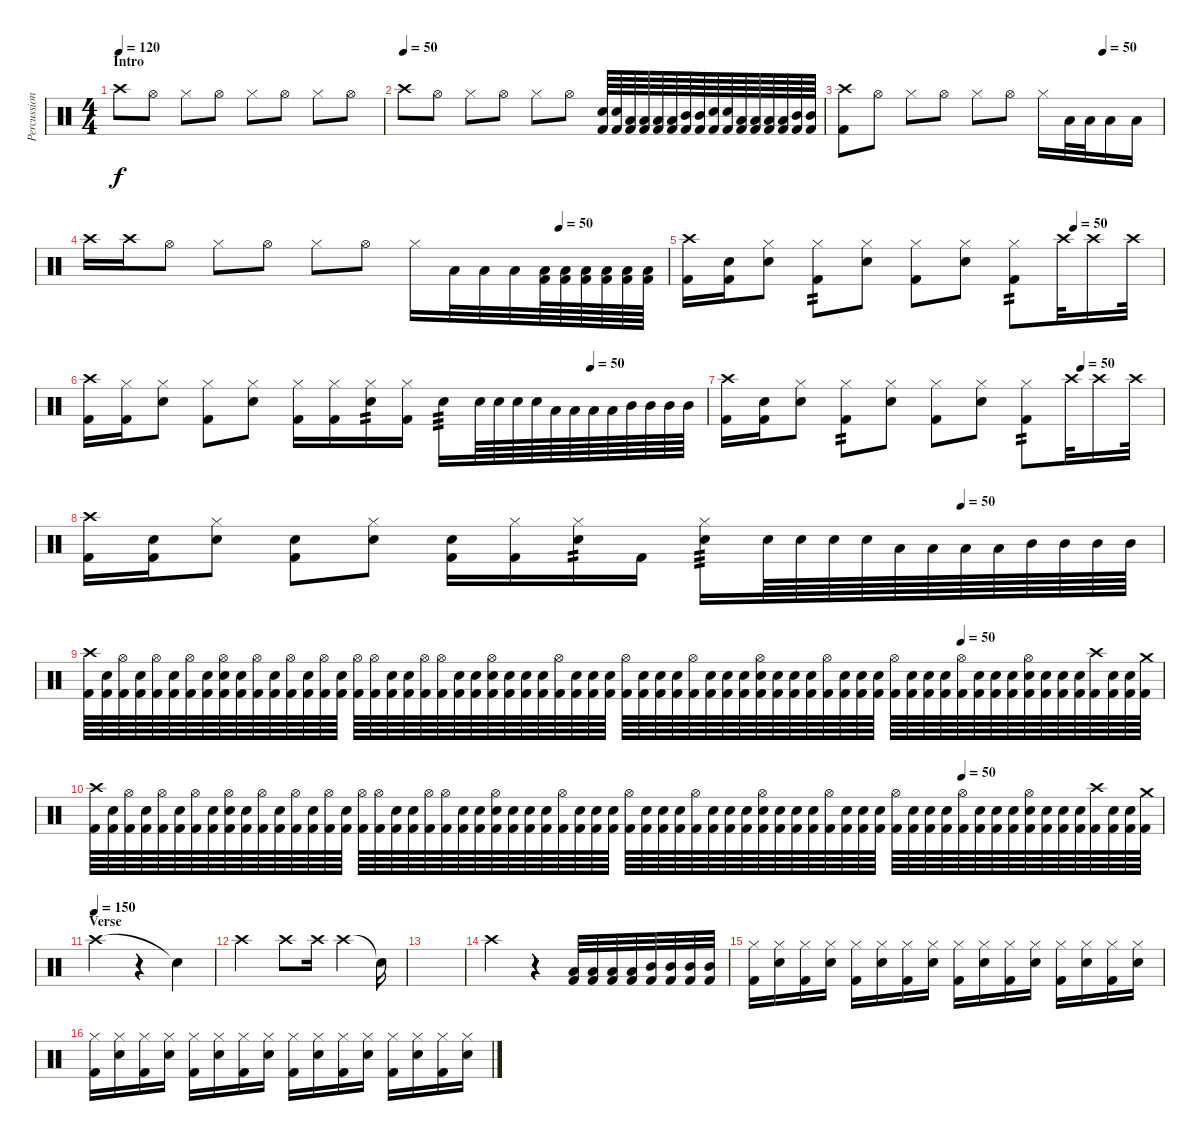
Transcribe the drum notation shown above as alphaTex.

\track ("Percussion" "Percussion") {instrument percussion}
\staff {score}
\articulation defaults
\ts (4 4)
\section ("" "Intro")
\tempo 120
\tempo 50
\tempo 120
\clef neutral
\ks c "Crash high (hit)".8{dy f} "Hi-Hat (open)".8 "Hi-Hat (closed)".8 "Hi-Hat (open)".8 "Hi-Hat (closed)".8 "Hi-Hat (open)".8 "Hi-Hat (closed)".8 "Hi-Hat (open)".8
|
\tempo (50)
"Crash high (hit)".8 "Hi-Hat (open)".8 "Hi-Hat (closed)".8 "Hi-Hat (open)".8 "Hi-Hat (closed)".8 "Hi-Hat (open)".8 ("Electric Snare (hit)" "Kick (hit) 2").64 ("Electric Snare (hit)" "Kick (hit) 2").64 ("Low Tom (hit)" "Kick (hit) 2").64 ("Low Tom (hit)" "Kick (hit) 2").64 ("Low Tom (hit)" "Kick (hit) 2").64 ("Low Tom (hit)" "Kick (hit) 2").64 ("Mid Tom (hit)" "Kick (hit) 2").64 ("Mid Tom (hit)" "Kick (hit) 2").64 ("Electric Snare (hit)" "Kick (hit) 2").64 ("Electric Snare (hit)" "Kick (hit) 2").64 ("Low Tom (hit)" "Kick (hit) 2").64 ("Low Tom (hit)" "Kick (hit) 2").64 ("Low Tom (hit)" "Kick (hit) 2").64 ("Low Tom (hit)" "Kick (hit) 2").64 ("Mid Tom (hit)" "Kick (hit) 2").64 ("Mid Tom (hit)" "Kick (hit) 2").64 |
\tempo (50 0.8125)
("Crash high (hit)" "Kick (hit) 2").8 "Hi-Hat (open)".8 "Hi-Hat (closed)".8 "Hi-Hat (open)".8 "Hi-Hat (closed)".8 "Hi-Hat (open)".8 "Hi-Hat (closed)".16 "Low Tom (hit)".32 "Low Tom (hit)".32 "Low Tom (hit)".16 "Low Tom (hit)".16 |
\tempo (50 0.8125)
"Crash high (hit)".16 "Crash high (hit)".16 "Hi-Hat (open)".8 "Hi-Hat (closed)".8 "Hi-Hat (open)".8 "Hi-Hat (closed)".8 "Hi-Hat (open)".8 "Hi-Hat (closed)".16 "Low Tom (hit)".32 "Low Tom (hit)".32 "Low Tom (hit)".32 ("Low Tom (hit)" "Kick (hit) 2").64 ("Low Tom (hit)" "Kick (hit) 2").64 ("Low Tom (hit)" "Kick (hit) 2").64 ("Low Tom (hit)" "Kick (hit) 2").64 ("Low Tom (hit)" "Kick (hit) 2").64 ("Low Tom (hit)" "Kick (hit) 2").64 |
\tempo (50 0.8125)
("Crash high (hit)" "Kick (hit) 2").16 ("Snare (hit)"{x} "Kick (hit) 2").16 ("Hi-Hat (closed)" "Electric Snare (hit)").8 ("Hi-Hat (closed)" "Kick (hit) 2").8{tp 2} ("Hi-Hat (closed)" "Electric Snare (hit)").8 ("Hi-Hat (closed)" "Kick (hit) 2").8 ("Hi-Hat (closed)" "Electric Snare (hit)").8 ("Hi-Hat (closed)" "Kick (hit) 2").8{tp 2} "Crash high (hit)".32 "Crash high (hit)".16 "Crash high (hit)".32 |
\tempo (50 0.8125)
("Crash high (hit)" "Kick (hit) 2").16 ("Hi-Hat (closed)"{x} "Kick (hit) 2").16 ("Hi-Hat (closed)" "Electric Snare (hit)").8 ("Hi-Hat (closed)" "Kick (hit) 2").8 ("Hi-Hat (closed)" "Electric Snare (hit)").8 ("Hi-Hat (closed)" "Kick (hit) 2").16 ("Hi-Hat (closed)"{x} "Kick (hit) 2").16 ("Hi-Hat (closed)" "Electric Snare (hit)").16{tp 2} ("Hi-Hat (closed)"{x} "Kick (hit) 2").16 "Electric Snare (hit)".16{tp 3} "Electric Snare (hit)".64 "Electric Snare (hit)".64 "Electric Snare (hit)".64 "Electric Snare (hit)".64 "Low Tom (hit)".64 "Low Tom (hit)".64 "Low Tom (hit)".64 "Low Tom (hit)".64 "Mid Tom (hit)".64 "Mid Tom (hit)".64 "Mid Tom (hit)".64 "Mid Tom (hit)".64 |
\tempo (50 0.8125)
("Crash high (hit)" "Kick (hit) 2").16 ("Snare (hit)"{x} "Kick (hit) 2").16 ("Hi-Hat (closed)" "Electric Snare (hit)").8 ("Hi-Hat (closed)" "Kick (hit) 2").8{tp 2} ("Hi-Hat (closed)" "Electric Snare (hit)").8 ("Hi-Hat (closed)" "Kick (hit) 2").8 ("Hi-Hat (closed)" "Electric Snare (hit)").8 ("Hi-Hat (closed)" "Kick (hit) 2").8{tp 2} "Crash high (hit)".32 "Crash high (hit)".16 "Crash high (hit)".32 |
\tempo (50 0.8125)
("Crash high (hit)" "Kick (hit) 2").16 ("Snare (hit)"{x} "Kick (hit) 2").16 ("Hi-Hat (closed)" "Electric Snare (hit)").8 ("Snare (hit)"{x} "Kick (hit) 2").8 ("Hi-Hat (closed)" "Electric Snare (hit)").8 ("Snare (hit)"{x} "Kick (hit) 2").16 ("Hi-Hat (closed)" "Kick (hit) 2").16 ("Hi-Hat (closed)"{x} "Electric Snare (hit)").16{tp 2} "Kick (hit) 2".16 ("Hi-Hat (closed)"{x} "Electric Snare (hit)").16{tp 3} "Electric Snare (hit)".64 "Electric Snare (hit)".64 "Electric Snare (hit)".64 "Electric Snare (hit)".64 "Low Tom (hit)".64 "Low Tom (hit)".64 "Low Tom (hit)".64 "Low Tom (hit)".64 "Mid Tom (hit)".64 "Mid Tom (hit)".64 "Mid Tom (hit)".64 "Mid Tom (hit)".64 |
\tempo (50 0.8125)
("Crash high (hit)" "Kick (hit) 2").64 ("Snare (hit)"{x} "Kick (hit) 2").64 ("Hi-Hat (open)"{x} "Kick (hit) 2").64 ("Snare (hit)"{x} "Kick (hit) 2").64 ("Hi-Hat (open)" "Kick (hit) 2").64 ("Snare (hit)"{x} "Kick (hit) 2").64 ("Hi-Hat (open)"{x} "Kick (hit) 2").64 ("Snare (hit)"{x} "Kick (hit) 2").64 ("Hi-Hat (open)" "Electric Snare (hit)" "Kick (hit) 2").64 ("Snare (hit)"{x} "Kick (hit) 2").64 ("Hi-Hat (open)"{x} "Kick (hit) 2").64 ("Snare (hit)"{x} "Kick (hit) 2").64 ("Hi-Hat (open)" "Kick (hit) 2").64 ("Snare (hit)"{x} "Kick (hit) 2").64 ("Hi-Hat (open)"{x} "Kick (hit) 2").64 ("Snare (hit)"{x} "Kick (hit) 2").64 ("Hi-Hat (open)" "Kick (hit) 2").64 ("Hi-Hat (open)"{x} "Kick (hit) 2").64 ("Snare (hit)"{x} "Kick (hit) 2").64 ("Snare (hit)"{x} "Kick (hit) 2").64 ("Hi-Hat (open)" "Kick (hit) 2").64 ("Hi-Hat (open)"{x} "Kick (hit) 2").64 ("Snare (hit)"{x} "Kick (hit) 2").64 ("Snare (hit)"{x} "Kick (hit) 2").64 ("Hi-Hat (open)" "Electric Snare (hit)" "Kick (hit) 2").64 ("Snare (hit)"{x} "Kick (hit) 2").64 ("Snare (hit)"{x} "Kick (hit) 2").64 ("Snare (hit)"{x} "Kick (hit) 2").64 ("Hi-Hat (open)" "Kick (hit) 2").64 ("Snare (hit)"{x} "Kick (hit) 2").64 ("Snare (hit)"{x} "Kick (hit) 2").64 ("Snare (hit)"{x} "Kick (hit) 2").64 ("Hi-Hat (open)" "Kick (hit) 2").64 ("Snare (hit)"{x} "Kick (hit) 2").64 ("Snare (hit)"{x} "Kick (hit) 2").64 ("Snare (hit)"{x} "Kick (hit) 2").64 ("Hi-Hat (open)" "Kick (hit) 2").64 ("Snare (hit)"{x} "Kick (hit) 2").64 ("Snare (hit)"{x} "Kick (hit) 2").64 ("Snare (hit)"{x} "Kick (hit) 2").64 ("Hi-Hat (open)" "Electric Snare (hit)" "Kick (hit) 2").64 ("Snare (hit)"{x} "Kick (hit) 2").64 ("Snare (hit)"{x} "Kick (hit) 2").64 ("Snare (hit)"{x} "Kick (hit) 2").64 ("Hi-Hat (open)" "Kick (hit) 2").64 ("Snare (hit)"{x} "Kick (hit) 2").64 ("Snare (hit)"{x} "Kick (hit) 2").64 ("Snare (hit)"{x} "Kick (hit) 2").64 ("Hi-Hat (open)" "Kick (hit) 2").64 ("Snare (hit)"{x} "Kick (hit) 2").64 ("Snare (hit)"{x} "Kick (hit) 2").64 ("Snare (hit)"{x} "Kick (hit) 2").64 ("Hi-Hat (open)" "Kick (hit) 2").64 ("Snare (hit)"{x} "Kick (hit) 2").64 ("Snare (hit)"{x} "Kick (hit) 2").64 ("Snare (hit)"{x} "Kick (hit) 2").64 ("Hi-Hat (open)" "Electric Snare (hit)" "Kick (hit) 2").64 ("Snare (hit)"{x} "Kick (hit) 2").64 ("Snare (hit)"{x} "Kick (hit) 2").64 ("Snare (hit)"{x} "Kick (hit) 2").64 ("Crash high (hit)" "Kick (hit) 2").64 ("Snare (hit)"{x} "Kick (hit) 2").64 ("Snare (hit)"{x} "Kick (hit) 2").64 ("Crash medium (hit)" "Kick (hit) 2").64 |
\tempo (50 0.8125)
("Crash high (hit)" "Kick (hit) 2").64 ("Snare (hit)"{x} "Kick (hit) 2").64 ("Hi-Hat (open)"{x} "Kick (hit) 2").64 ("Snare (hit)"{x} "Kick (hit) 2").64 ("Hi-Hat (open)" "Kick (hit) 2").64 ("Snare (hit)"{x} "Kick (hit) 2").64 ("Hi-Hat (open)"{x} "Kick (hit) 2").64 ("Snare (hit)"{x} "Kick (hit) 2").64 ("Hi-Hat (open)" "Electric Snare (hit)" "Kick (hit) 2").64 ("Snare (hit)"{x} "Kick (hit) 2").64 ("Hi-Hat (open)"{x} "Kick (hit) 2").64 ("Snare (hit)"{x} "Kick (hit) 2").64 ("Hi-Hat (open)" "Kick (hit) 2").64 ("Snare (hit)"{x} "Kick (hit) 2").64 ("Hi-Hat (open)"{x} "Kick (hit) 2").64 ("Snare (hit)"{x} "Kick (hit) 2").64 ("Hi-Hat (open)" "Kick (hit) 2").64 ("Hi-Hat (open)"{x} "Kick (hit) 2").64 ("Snare (hit)"{x} "Kick (hit) 2").64 ("Snare (hit)"{x} "Kick (hit) 2").64 ("Hi-Hat (open)" "Kick (hit) 2").64 ("Hi-Hat (open)"{x} "Kick (hit) 2").64 ("Snare (hit)"{x} "Kick (hit) 2").64 ("Snare (hit)"{x} "Kick (hit) 2").64 ("Hi-Hat (open)" "Electric Snare (hit)" "Kick (hit) 2").64 ("Snare (hit)"{x} "Kick (hit) 2").64 ("Snare (hit)"{x} "Kick (hit) 2").64 ("Snare (hit)"{x} "Kick (hit) 2").64 ("Hi-Hat (open)" "Kick (hit) 2").64 ("Snare (hit)"{x} "Kick (hit) 2").64 ("Snare (hit)"{x} "Kick (hit) 2").64 ("Snare (hit)"{x} "Kick (hit) 2").64 ("Hi-Hat (open)" "Kick (hit) 2").64 ("Snare (hit)"{x} "Kick (hit) 2").64 ("Snare (hit)"{x} "Kick (hit) 2").64 ("Snare (hit)"{x} "Kick (hit) 2").64 ("Hi-Hat (open)" "Kick (hit) 2").64 ("Snare (hit)"{x} "Kick (hit) 2").64 ("Snare (hit)"{x} "Kick (hit) 2").64 ("Snare (hit)"{x} "Kick (hit) 2").64 ("Hi-Hat (open)" "Electric Snare (hit)" "Kick (hit) 2").64 ("Snare (hit)"{x} "Kick (hit) 2").64 ("Snare (hit)"{x} "Kick (hit) 2").64 ("Snare (hit)"{x} "Kick (hit) 2").64 ("Hi-Hat (open)" "Kick (hit) 2").64 ("Snare (hit)"{x} "Kick (hit) 2").64 ("Snare (hit)"{x} "Kick (hit) 2").64 ("Snare (hit)"{x} "Kick (hit) 2").64 ("Hi-Hat (open)" "Kick (hit) 2").64 ("Snare (hit)"{x} "Kick (hit) 2").64 ("Snare (hit)"{x} "Kick (hit) 2").64 ("Snare (hit)"{x} "Kick (hit) 2").64 ("Hi-Hat (open)" "Kick (hit) 2").64 ("Snare (hit)"{x} "Kick (hit) 2").64 ("Snare (hit)"{x} "Kick (hit) 2").64 ("Snare (hit)"{x} "Kick (hit) 2").64 ("Hi-Hat (open)" "Electric Snare (hit)" "Kick (hit) 2").64 ("Snare (hit)"{x} "Kick (hit) 2").64 ("Snare (hit)"{x} "Kick (hit) 2").64 ("Snare (hit)"{x} "Kick (hit) 2").64 ("Crash high (hit)" "Kick (hit) 2").64 ("Snare (hit)"{x} "Kick (hit) 2").64 ("Snare (hit)"{x} "Kick (hit) 2").64 ("Crash medium (hit)" "Kick (hit) 2").64 |
\section ("" "Verse")
\tempo (150)
"Crash high (hit)".2 r.4 "Snare (hit)"{t}.4 |
"Crash high (hit)".2 "Crash high (hit)".8 "Crash high (hit)".16 "Crash high (hit)".4 "Snare (hit)"{t}.16 |
|
"Crash high (hit)".2 r.4 ("Low Tom (hit)" "Kick (hit) 2").32 ("Low Tom (hit)" "Kick (hit) 2").32 ("Low Tom (hit)" "Kick (hit) 2").32 ("Low Tom (hit)" "Kick (hit) 2").32 ("Mid Tom (hit)" "Kick (hit) 2").32 ("Mid Tom (hit)" "Kick (hit) 2").32 ("Mid Tom (hit)" "Kick (hit) 2").32 ("Mid Tom (hit)" "Kick (hit) 2").32 |
("Hi-Hat (closed)" "Kick (hit) 2").16 ("Hi-Hat (closed)" "Electric Snare (hit)").16 ("Hi-Hat (closed)" "Kick (hit) 2").16 ("Hi-Hat (closed)" "Electric Snare (hit)").16 ("Hi-Hat (closed)" "Kick (hit) 2").16 ("Hi-Hat (closed)" "Electric Snare (hit)").16 ("Hi-Hat (closed)" "Kick (hit) 2").16 ("Hi-Hat (closed)" "Electric Snare (hit)").16 ("Hi-Hat (closed)" "Kick (hit) 2").16 ("Hi-Hat (closed)" "Electric Snare (hit)").16 ("Hi-Hat (closed)" "Kick (hit) 2").16 ("Hi-Hat (closed)" "Electric Snare (hit)").16 ("Hi-Hat (closed)" "Kick (hit) 2").16 ("Hi-Hat (closed)" "Electric Snare (hit)").16 ("Hi-Hat (closed)" "Kick (hit) 2").16 ("Hi-Hat (closed)" "Electric Snare (hit)").16 |
("Hi-Hat (closed)" "Kick (hit) 2").16 ("Hi-Hat (closed)" "Electric Snare (hit)").16 ("Hi-Hat (closed)" "Kick (hit) 2").16 ("Hi-Hat (closed)" "Electric Snare (hit)").16 ("Hi-Hat (closed)" "Kick (hit) 2").16 ("Hi-Hat (closed)" "Electric Snare (hit)").16 ("Hi-Hat (closed)" "Kick (hit) 2").16 ("Hi-Hat (closed)" "Electric Snare (hit)").16 ("Hi-Hat (closed)" "Kick (hit) 2").16 ("Hi-Hat (closed)" "Electric Snare (hit)").16 ("Hi-Hat (closed)" "Kick (hit) 2").16 ("Hi-Hat (closed)" "Electric Snare (hit)").16 ("Hi-Hat (closed)" "Kick (hit) 2").16 ("Hi-Hat (closed)" "Electric Snare (hit)").16 ("Hi-Hat (closed)" "Kick (hit) 2").16 ("Hi-Hat (closed)" "Electric Snare (hit)").16
